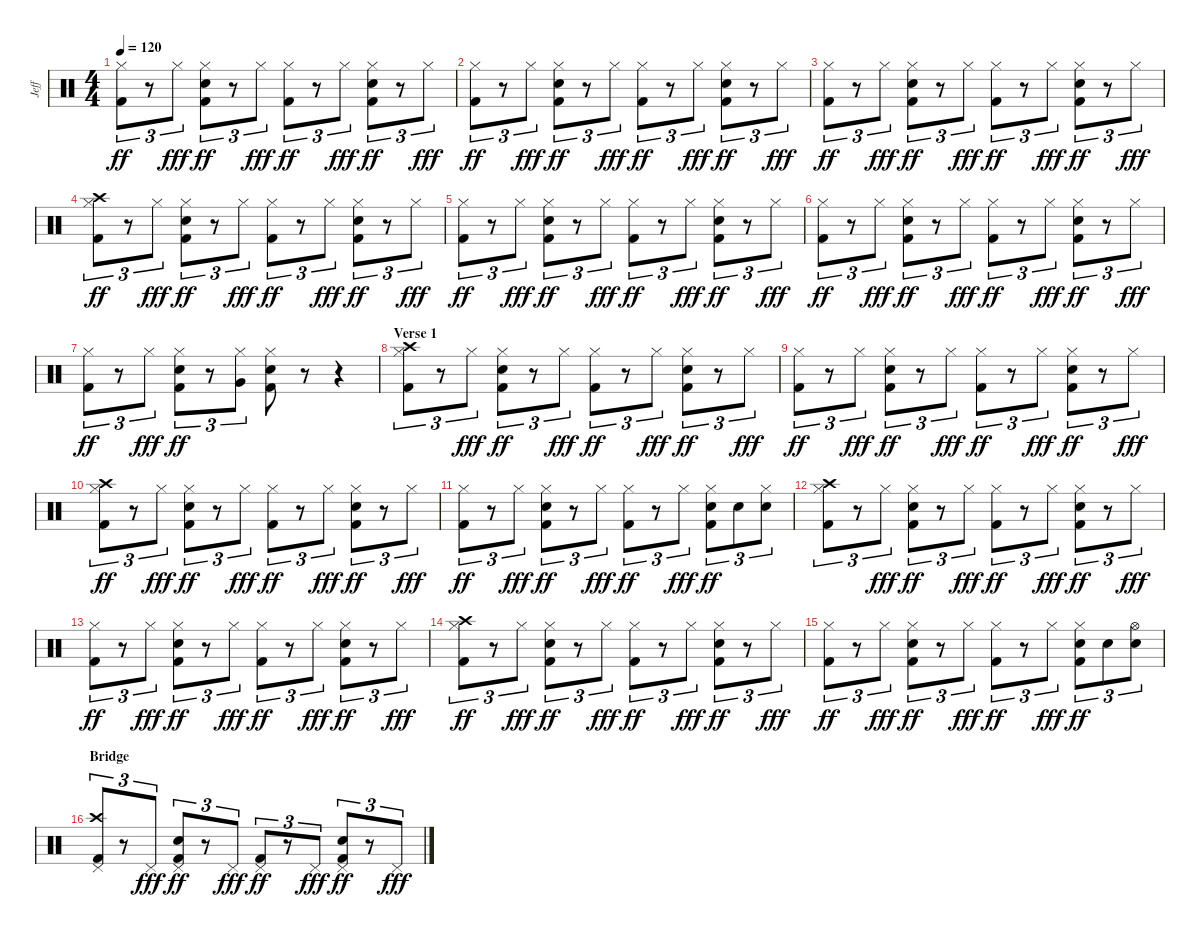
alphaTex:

\track ("Jeff" "Jeff") {instrument percussion}
\staff {score}
\articulation defaults
\ts (4 4)
\tempo 120
\clef neutral
\ks c
("Hi-Hat (closed)" "Kick (hit) 2").8{tu (3 2) dy ff} r.8{tu (3 2)} "Hi-Hat (closed)".8{tu (3 2) dy fff} ("Hi-Hat (closed)" "Snare (hit) 2" "Kick (hit) 2").8{tu (3 2) dy ff} r.8{tu (3 2)} "Hi-Hat (closed)".8{tu (3 2) dy fff} ("Hi-Hat (closed)" "Kick (hit) 2").8{tu (3 2) dy ff} r.8{tu (3 2)} "Hi-Hat (closed)".8{tu (3 2) dy fff} ("Hi-Hat (closed)" "Snare (hit) 2" "Kick (hit) 2").8{tu (3 2) dy ff} r.8{tu (3 2)} "Hi-Hat (closed)".8{tu (3 2) dy fff} |
("Hi-Hat (closed)" "Kick (hit) 2").8{tu (3 2) dy ff} r.8{tu (3 2)} "Hi-Hat (closed)".8{tu (3 2) dy fff} ("Hi-Hat (closed)" "Snare (hit) 2" "Kick (hit) 2").8{tu (3 2) dy ff} r.8{tu (3 2)} "Hi-Hat (closed)".8{tu (3 2) dy fff} ("Hi-Hat (closed)" "Kick (hit) 2").8{tu (3 2) dy ff} r.8{tu (3 2)} "Hi-Hat (closed)".8{tu (3 2) dy fff} ("Hi-Hat (closed)" "Snare (hit) 2" "Kick (hit) 2").8{tu (3 2) dy ff} r.8{tu (3 2)} "Hi-Hat (closed)".8{tu (3 2) dy fff} |
("Hi-Hat (closed)" "Kick (hit) 2").8{tu (3 2) dy ff} r.8{tu (3 2)} "Hi-Hat (closed)".8{tu (3 2) dy fff} ("Hi-Hat (closed)" "Snare (hit) 2" "Kick (hit) 2").8{tu (3 2) dy ff} r.8{tu (3 2)} "Hi-Hat (closed)".8{tu (3 2) dy fff} ("Hi-Hat (closed)" "Kick (hit) 2").8{tu (3 2) dy ff} r.8{tu (3 2)} "Hi-Hat (closed)".8{tu (3 2) dy fff} ("Hi-Hat (closed)" "Snare (hit) 2" "Kick (hit) 2").8{tu (3 2) dy ff} r.8{tu (3 2)} "Hi-Hat (closed)".8{tu (3 2) dy fff} |
("Crash high (hit)" "Hi-Hat (closed)" "Kick (hit) 2").8{tu (3 2) dy ff} r.8{tu (3 2)} "Hi-Hat (closed)".8{tu (3 2) dy fff} ("Hi-Hat (closed)" "Snare (hit) 2" "Kick (hit) 2").8{tu (3 2) dy ff} r.8{tu (3 2)} "Hi-Hat (closed)".8{tu (3 2) dy fff} ("Hi-Hat (closed)" "Kick (hit) 2").8{tu (3 2) dy ff} r.8{tu (3 2)} "Hi-Hat (closed)".8{tu (3 2) dy fff} ("Hi-Hat (closed)" "Snare (hit) 2" "Kick (hit) 2").8{tu (3 2) dy ff} r.8{tu (3 2)} "Hi-Hat (closed)".8{tu (3 2) dy fff} |
("Hi-Hat (closed)" "Kick (hit) 2").8{tu (3 2) dy ff} r.8{tu (3 2)} "Hi-Hat (closed)".8{tu (3 2) dy fff} ("Hi-Hat (closed)" "Snare (hit) 2" "Kick (hit) 2").8{tu (3 2) dy ff} r.8{tu (3 2)} "Hi-Hat (closed)".8{tu (3 2) dy fff} ("Hi-Hat (closed)" "Kick (hit) 2").8{tu (3 2) dy ff} r.8{tu (3 2)} "Hi-Hat (closed)".8{tu (3 2) dy fff} ("Hi-Hat (closed)" "Snare (hit) 2" "Kick (hit) 2").8{tu (3 2) dy ff} r.8{tu (3 2)} "Hi-Hat (closed)".8{tu (3 2) dy fff} |
("Hi-Hat (closed)" "Kick (hit) 2").8{tu (3 2) dy ff} r.8{tu (3 2)} "Hi-Hat (closed)".8{tu (3 2) dy fff} ("Hi-Hat (closed)" "Snare (hit) 2" "Kick (hit) 2").8{tu (3 2) dy ff} r.8{tu (3 2)} "Hi-Hat (closed)".8{tu (3 2) dy fff} ("Hi-Hat (closed)" "Kick (hit) 2").8{tu (3 2) dy ff} r.8{tu (3 2)} "Hi-Hat (closed)".8{tu (3 2) dy fff} ("Hi-Hat (closed)" "Snare (hit) 2" "Kick (hit) 2").8{tu (3 2) dy ff} r.8{tu (3 2)} "Hi-Hat (closed)".8{tu (3 2) dy fff} |
("Hi-Hat (closed)" "Kick (hit) 2").8{tu (3 2) dy ff} r.8{tu (3 2)} "Hi-Hat (closed)".8{tu (3 2) dy fff} ("Hi-Hat (closed)" "Snare (hit) 2" "Kick (hit) 2").8{tu (3 2) dy ff} r.8{tu (3 2)} ("Hi-Hat (closed)" "Very Low Tom (hit)").8{tu (3 2)} ("Hi-Hat (closed)" "Snare (hit) 2" "Kick (hit) 2").8 r.8 r.4 |
\section ("" "Verse 1")
("Crash high (hit)" "Hi-Hat (closed)" "Kick (hit) 2").8{tu (3 2)} r.8{tu (3 2)} "Hi-Hat (closed)".8{tu (3 2) dy fff} ("Hi-Hat (closed)" "Snare (hit) 2" "Kick (hit) 2").8{tu (3 2) dy ff} r.8{tu (3 2)} "Hi-Hat (closed)".8{tu (3 2) dy fff} ("Hi-Hat (closed)" "Kick (hit) 2").8{tu (3 2) dy ff} r.8{tu (3 2)} "Hi-Hat (closed)".8{tu (3 2) dy fff} ("Hi-Hat (closed)" "Snare (hit) 2" "Kick (hit) 2").8{tu (3 2) dy ff} r.8{tu (3 2)} "Hi-Hat (closed)".8{tu (3 2) dy fff} |
("Hi-Hat (closed)" "Kick (hit) 2").8{tu (3 2) dy ff} r.8{tu (3 2)} "Hi-Hat (closed)".8{tu (3 2) dy fff} ("Hi-Hat (closed)" "Snare (hit) 2" "Kick (hit) 2").8{tu (3 2) dy ff} r.8{tu (3 2)} "Hi-Hat (closed)".8{tu (3 2) dy fff} ("Hi-Hat (closed)" "Kick (hit) 2").8{tu (3 2) dy ff} r.8{tu (3 2)} "Hi-Hat (closed)".8{tu (3 2) dy fff} ("Hi-Hat (closed)" "Snare (hit) 2" "Kick (hit) 2").8{tu (3 2) dy ff} r.8{tu (3 2)} "Hi-Hat (closed)".8{tu (3 2) dy fff} |
("Crash high (hit)" "Hi-Hat (closed)" "Kick (hit) 2").8{tu (3 2) dy ff} r.8{tu (3 2)} "Hi-Hat (closed)".8{tu (3 2) dy fff} ("Hi-Hat (closed)" "Snare (hit) 2" "Kick (hit) 2").8{tu (3 2) dy ff} r.8{tu (3 2)} "Hi-Hat (closed)".8{tu (3 2) dy fff} ("Hi-Hat (closed)" "Kick (hit) 2").8{tu (3 2) dy ff} r.8{tu (3 2)} "Hi-Hat (closed)".8{tu (3 2) dy fff} ("Hi-Hat (closed)" "Snare (hit) 2" "Kick (hit) 2").8{tu (3 2) dy ff} r.8{tu (3 2)} "Hi-Hat (closed)".8{tu (3 2) dy fff} |
("Hi-Hat (closed)" "Kick (hit) 2").8{tu (3 2) dy ff} r.8{tu (3 2)} "Hi-Hat (closed)".8{tu (3 2) dy fff} ("Hi-Hat (closed)" "Snare (hit) 2" "Kick (hit) 2").8{tu (3 2) dy ff} r.8{tu (3 2)} "Hi-Hat (closed)".8{tu (3 2) dy fff} ("Hi-Hat (closed)" "Kick (hit) 2").8{tu (3 2) dy ff} r.8{tu (3 2)} "Hi-Hat (closed)".8{tu (3 2) dy fff} ("Hi-Hat (closed)" "Snare (hit) 2" "Kick (hit) 2").8{tu (3 2) dy ff} "Snare (hit) 2".8{tu (3 2)} ("Hi-Hat (closed)" "Snare (hit) 2").8{tu (3 2)} |
("Crash high (hit)" "Hi-Hat (closed)" "Kick (hit) 2").8{tu (3 2)} r.8{tu (3 2)} "Hi-Hat (closed)".8{tu (3 2) dy fff} ("Hi-Hat (closed)" "Snare (hit) 2" "Kick (hit) 2").8{tu (3 2) dy ff} r.8{tu (3 2)} "Hi-Hat (closed)".8{tu (3 2) dy fff} ("Hi-Hat (closed)" "Kick (hit) 2").8{tu (3 2) dy ff} r.8{tu (3 2)} "Hi-Hat (closed)".8{tu (3 2) dy fff} ("Hi-Hat (closed)" "Snare (hit) 2" "Kick (hit) 2").8{tu (3 2) dy ff} r.8{tu (3 2)} "Hi-Hat (closed)".8{tu (3 2) dy fff} |
("Hi-Hat (closed)" "Kick (hit) 2").8{tu (3 2) dy ff} r.8{tu (3 2)} "Hi-Hat (closed)".8{tu (3 2) dy fff} ("Hi-Hat (closed)" "Snare (hit) 2" "Kick (hit) 2").8{tu (3 2) dy ff} r.8{tu (3 2)} "Hi-Hat (closed)".8{tu (3 2) dy fff} ("Hi-Hat (closed)" "Kick (hit) 2").8{tu (3 2) dy ff} r.8{tu (3 2)} "Hi-Hat (closed)".8{tu (3 2) dy fff} ("Hi-Hat (closed)" "Snare (hit) 2" "Kick (hit) 2").8{tu (3 2) dy ff} r.8{tu (3 2)} "Hi-Hat (closed)".8{tu (3 2) dy fff} |
("Crash high (hit)" "Hi-Hat (closed)" "Kick (hit) 2").8{tu (3 2) dy ff} r.8{tu (3 2)} "Hi-Hat (closed)".8{tu (3 2) dy fff} ("Hi-Hat (closed)" "Snare (hit) 2" "Kick (hit) 2").8{tu (3 2) dy ff} r.8{tu (3 2)} "Hi-Hat (closed)".8{tu (3 2) dy fff} ("Hi-Hat (closed)" "Kick (hit) 2").8{tu (3 2) dy ff} r.8{tu (3 2)} "Hi-Hat (closed)".8{tu (3 2) dy fff} ("Hi-Hat (closed)" "Snare (hit) 2" "Kick (hit) 2").8{tu (3 2) dy ff} r.8{tu (3 2)} "Hi-Hat (closed)".8{tu (3 2) dy fff} |
("Hi-Hat (closed)" "Kick (hit) 2").8{tu (3 2) dy ff} r.8{tu (3 2)} "Hi-Hat (closed)".8{tu (3 2) dy fff} ("Hi-Hat (closed)" "Snare (hit) 2" "Kick (hit) 2").8{tu (3 2) dy ff} r.8{tu (3 2)} "Hi-Hat (closed)".8{tu (3 2) dy fff} ("Hi-Hat (closed)" "Kick (hit) 2").8{tu (3 2) dy ff} r.8{tu (3 2)} "Hi-Hat (closed)".8{tu (3 2) dy fff} ("Hi-Hat (closed)" "Snare (hit) 2" "Kick (hit) 2").8{tu (3 2) dy ff} "Snare (hit) 2".8{tu (3 2)} ("Hi-Hat (open)" "Snare (hit) 2").8{tu (3 2)} |
\section ("" "Bridge")
("Crash high (hit)" "Pedal Hi-Hat (hit)" "Kick (hit) 2").8{tu (3 2)} r.8{tu (3 2)} "Pedal Hi-Hat (hit)".8{tu (3 2) dy fff} ("Pedal Hi-Hat (hit)" "Snare (hit) 2" "Kick (hit) 2").8{tu (3 2) dy ff} r.8{tu (3 2)} "Pedal Hi-Hat (hit)".8{tu (3 2) dy fff} ("Pedal Hi-Hat (hit)" "Kick (hit) 2").8{tu (3 2) dy ff} r.8{tu (3 2)} "Pedal Hi-Hat (hit)".8{tu (3 2) dy fff} ("Pedal Hi-Hat (hit)" "Snare (hit) 2" "Kick (hit) 2").8{tu (3 2) dy ff} r.8{tu (3 2)} "Pedal Hi-Hat (hit)".8{tu (3 2) dy fff}
